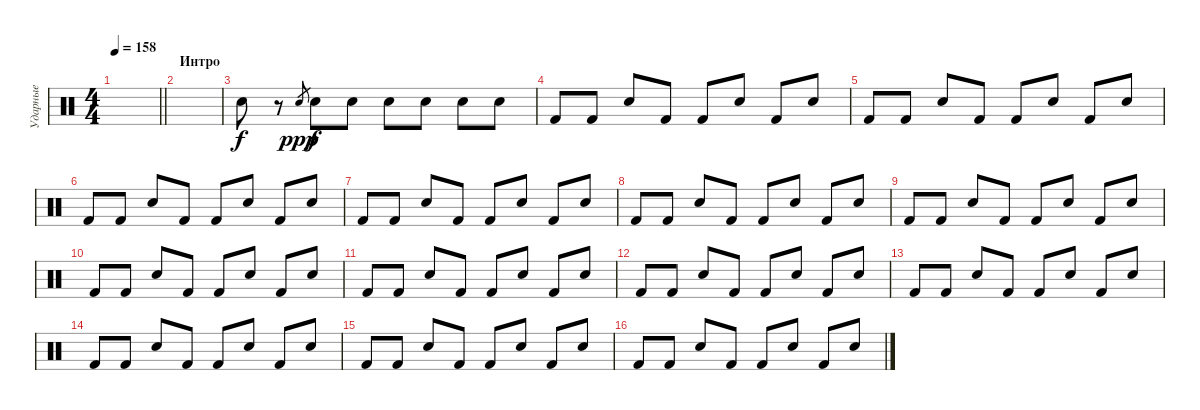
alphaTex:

\track ("Ударные" "Ударные") {instrument percussion}
\staff {score}
\articulation defaults
\ts (4 4)
\tempo 158
\clef neutral
\barLineRight lightlight
\ks c
|
\section ("" "Интро")
|
"Electric Snare (hit)".8 r.8 "Electric Snare (hit)".8{gr dy ppp} "Electric Snare (hit)".8{dy f} "Electric Snare (hit)".8 "Electric Snare (hit)".8 "Electric Snare (hit)".8 "Electric Snare (hit)".8 "Electric Snare (hit)".8 |
"Kick (hit) 2".8 "Kick (hit) 2".8 "Electric Snare (hit)".8 "Kick (hit) 2".8 "Kick (hit) 2".8 "Electric Snare (hit)".8 "Kick (hit) 2".8 "Electric Snare (hit)".8 |
"Kick (hit) 2".8 "Kick (hit) 2".8 "Electric Snare (hit)".8 "Kick (hit) 2".8 "Kick (hit) 2".8 "Electric Snare (hit)".8 "Kick (hit) 2".8 "Electric Snare (hit)".8 |
"Kick (hit) 2".8 "Kick (hit) 2".8 "Electric Snare (hit)".8 "Kick (hit) 2".8 "Kick (hit) 2".8 "Electric Snare (hit)".8 "Kick (hit) 2".8 "Electric Snare (hit)".8 |
"Kick (hit) 2".8 "Kick (hit) 2".8 "Electric Snare (hit)".8 "Kick (hit) 2".8 "Kick (hit) 2".8 "Electric Snare (hit)".8 "Kick (hit) 2".8 "Electric Snare (hit)".8 |
"Kick (hit) 2".8 "Kick (hit) 2".8 "Electric Snare (hit)".8 "Kick (hit) 2".8 "Kick (hit) 2".8 "Electric Snare (hit)".8 "Kick (hit) 2".8 "Electric Snare (hit)".8 |
"Kick (hit) 2".8 "Kick (hit) 2".8 "Electric Snare (hit)".8 "Kick (hit) 2".8 "Kick (hit) 2".8 "Electric Snare (hit)".8 "Kick (hit) 2".8 "Electric Snare (hit)".8 |
"Kick (hit) 2".8 "Kick (hit) 2".8 "Electric Snare (hit)".8 "Kick (hit) 2".8 "Kick (hit) 2".8 "Electric Snare (hit)".8 "Kick (hit) 2".8 "Electric Snare (hit)".8 |
"Kick (hit) 2".8 "Kick (hit) 2".8 "Electric Snare (hit)".8 "Kick (hit) 2".8 "Kick (hit) 2".8 "Electric Snare (hit)".8 "Kick (hit) 2".8 "Electric Snare (hit)".8 |
"Kick (hit) 2".8 "Kick (hit) 2".8 "Electric Snare (hit)".8 "Kick (hit) 2".8 "Kick (hit) 2".8 "Electric Snare (hit)".8 "Kick (hit) 2".8 "Electric Snare (hit)".8 |
"Kick (hit) 2".8 "Kick (hit) 2".8 "Electric Snare (hit)".8 "Kick (hit) 2".8 "Kick (hit) 2".8 "Electric Snare (hit)".8 "Kick (hit) 2".8 "Electric Snare (hit)".8 |
"Kick (hit) 2".8 "Kick (hit) 2".8 "Electric Snare (hit)".8 "Kick (hit) 2".8 "Kick (hit) 2".8 "Electric Snare (hit)".8 "Kick (hit) 2".8 "Electric Snare (hit)".8 |
"Kick (hit) 2".8 "Kick (hit) 2".8 "Electric Snare (hit)".8 "Kick (hit) 2".8 "Kick (hit) 2".8 "Electric Snare (hit)".8 "Kick (hit) 2".8 "Electric Snare (hit)".8 |
"Kick (hit) 2".8 "Kick (hit) 2".8 "Electric Snare (hit)".8 "Kick (hit) 2".8 "Kick (hit) 2".8 "Electric Snare (hit)".8 "Kick (hit) 2".8 "Electric Snare (hit)".8
